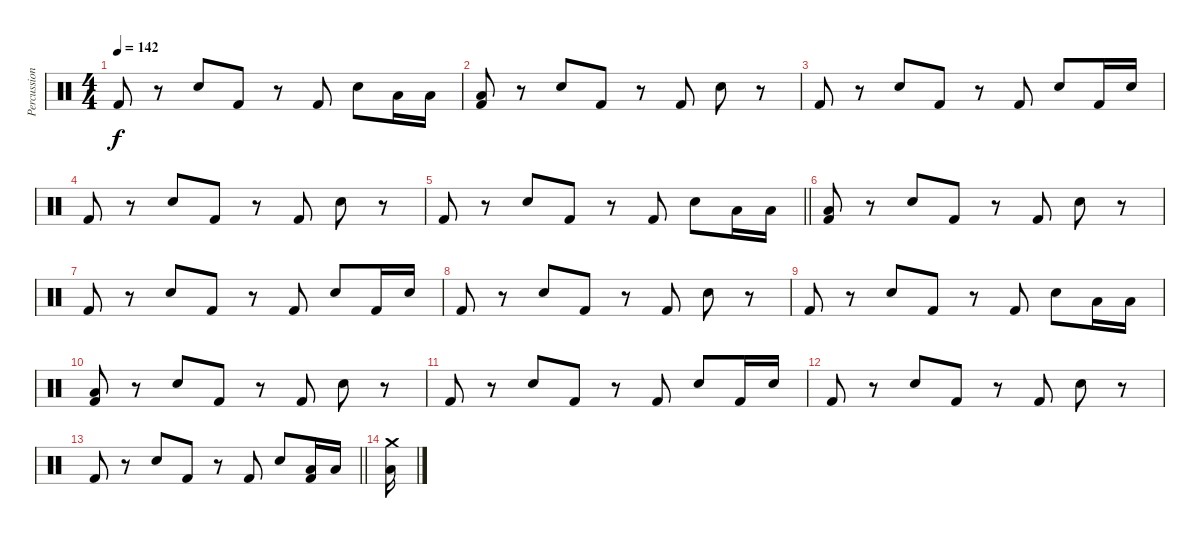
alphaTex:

\track ("Percussion" "Percussion") {instrument percussion}
\staff {score}
\articulation defaults
\ts (4 4)
\tempo 142
\clef neutral
\ks c "Kick (hit) 2".8{dy f}
r.8 "Electric Snare (hit)".8 "Kick (hit) 2".8 r.8 "Kick (hit) 2".8 "Electric Snare (hit)".8 "Low Tom (hit)".16 "Low Tom (hit)".16 |
("Low Tom (hit)" "Kick (hit) 2").8 r.8 "Electric Snare (hit)".8 "Kick (hit) 2".8 r.8 "Kick (hit) 2".8 "Electric Snare (hit)".8 r.8 |
"Kick (hit) 2".8 r.8 "Electric Snare (hit)".8 "Kick (hit) 2".8 r.8 "Kick (hit) 2".8 "Electric Snare (hit)".8 "Kick (hit) 2".16 "Electric Snare (hit)".16 |
"Kick (hit) 2".8 r.8 "Electric Snare (hit)".8 "Kick (hit) 2".8 r.8 "Kick (hit) 2".8 "Electric Snare (hit)".8 r.8 |
\barLineRight lightlight "Kick (hit) 2".8
r.8 "Electric Snare (hit)".8 "Kick (hit) 2".8 r.8 "Kick (hit) 2".8 "Electric Snare (hit)".8 "Low Tom (hit)".16 "Low Tom (hit)".16 |
("Low Tom (hit)" "Kick (hit) 2").8 r.8 "Electric Snare (hit)".8 "Kick (hit) 2".8 r.8 "Kick (hit) 2".8 "Electric Snare (hit)".8 r.8 |
"Kick (hit) 2".8 r.8 "Electric Snare (hit)".8 "Kick (hit) 2".8 r.8 "Kick (hit) 2".8 "Electric Snare (hit)".8 "Kick (hit) 2".16 "Electric Snare (hit)".16 |
"Kick (hit) 2".8 r.8 "Electric Snare (hit)".8 "Kick (hit) 2".8 r.8 "Kick (hit) 2".8 "Electric Snare (hit)".8 r.8 |
"Kick (hit) 2".8 r.8 "Electric Snare (hit)".8 "Kick (hit) 2".8 r.8 "Kick (hit) 2".8 "Electric Snare (hit)".8 "Low Tom (hit)".16 "Low Tom (hit)".16 |
("Low Tom (hit)" "Kick (hit) 2").8 r.8 "Electric Snare (hit)".8 "Kick (hit) 2".8 r.8 "Kick (hit) 2".8 "Electric Snare (hit)".8 r.8 |
"Kick (hit) 2".8 r.8 "Electric Snare (hit)".8 "Kick (hit) 2".8 r.8 "Kick (hit) 2".8 "Electric Snare (hit)".8 "Kick (hit) 2".16 "Electric Snare (hit)".16 |
"Kick (hit) 2".8 r.8 "Electric Snare (hit)".8 "Kick (hit) 2".8 r.8 "Kick (hit) 2".8 "Electric Snare (hit)".8 r.8 |
\barLineRight lightlight "Kick (hit) 2".8
r.8 "Electric Snare (hit)".8 "Kick (hit) 2".8 r.8 "Kick (hit) 2".8 "Electric Snare (hit)".8 ("Low Tom (hit)" "Kick (hit) 2").16 "Low Tom (hit)".16 |
("Crash medium (hit)" "Low Tom (hit)").16
